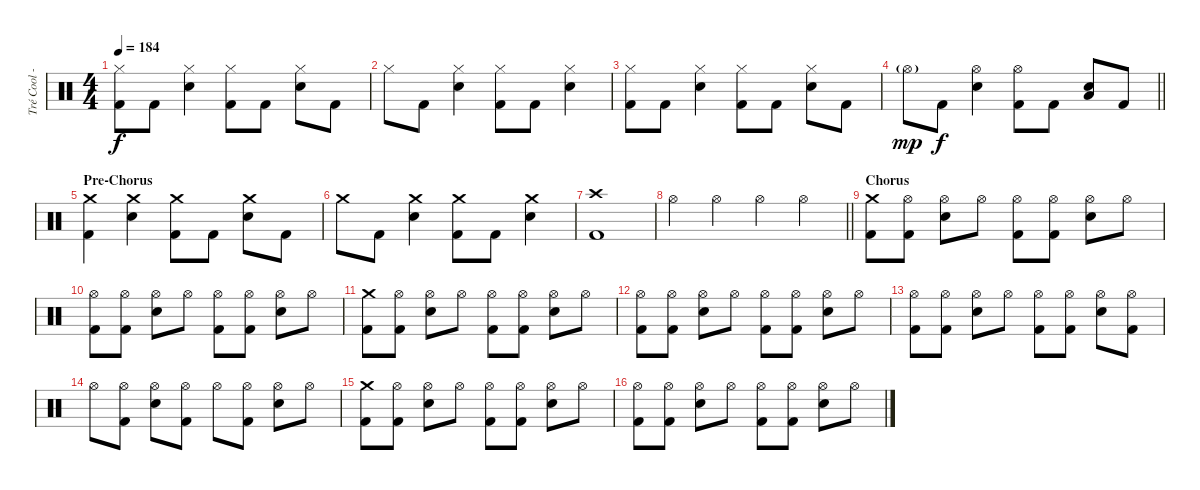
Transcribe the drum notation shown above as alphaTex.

\track ("Tré Cool - Drums" "Tré Cool -") {instrument percussion}
\staff {score}
\articulation defaults
\ts (4 4)
\tempo 184
\clef neutral
\ks c
("Hi-Hat (closed)" "Kick (hit) 2").8{dy f} "Kick (hit) 2".8 ("Hi-Hat (closed)" "Electric Snare (hit)").4 ("Hi-Hat (closed)" "Kick (hit) 2").8 "Kick (hit) 2".8 ("Hi-Hat (closed)" "Electric Snare (hit)").8 "Kick (hit) 2".8 |
"Hi-Hat (closed)".8 "Kick (hit) 2".8 ("Hi-Hat (closed)" "Electric Snare (hit)").4 ("Hi-Hat (closed)" "Kick (hit) 2").8 "Kick (hit) 2".8 ("Hi-Hat (closed)" "Electric Snare (hit)").4 |
("Hi-Hat (closed)" "Kick (hit) 2").8 "Kick (hit) 2".8 ("Hi-Hat (closed)" "Electric Snare (hit)").4 ("Hi-Hat (closed)" "Kick (hit) 2").8 "Kick (hit) 2".8 ("Hi-Hat (closed)" "Electric Snare (hit)").8 "Kick (hit) 2".8 |
\barLineRight lightlight "Hi-Hat (open)"{g}.8{dy mp} "Kick (hit) 2".8{dy f}
("Hi-Hat (open)" "Electric Snare (hit)").4 ("Hi-Hat (open)" "Kick (hit) 2").8 "Kick (hit) 2".8 ("Low Tom (hit)" "Electric Snare (hit)").8 "Kick (hit) 2".8 |
\section ("" "Pre-Chorus")
("Crash medium (hit)" "Kick (hit) 2").4 ("Crash medium (hit)" "Electric Snare (hit)").4 ("Crash medium (hit)" "Kick (hit) 2").8 "Kick (hit) 2".8 ("Crash medium (hit)" "Electric Snare (hit)").8 "Kick (hit) 2".8 |
"Crash medium (hit)".8 "Kick (hit) 2".8 ("Crash medium (hit)" "Electric Snare (hit)").4 ("Crash medium (hit)" "Kick (hit) 2").8 "Kick (hit) 2".8 ("Crash medium (hit)" "Electric Snare (hit)").4 |
("Crash high (hit)" "Kick (hit) 2").1 |
\barLineRight lightlight "Hi-Hat (open)".4{volume 12 balance 2} "Hi-Hat (open)".4 "Hi-Hat (open)".4 "Hi-Hat (open)".4
|
\section ("" "Chorus")
("Crash medium (hit)" "Kick (hit) 2").8{volume 11} ("Hi-Hat (open)" "Kick (hit) 2").8 ("Hi-Hat (open)" "Electric Snare (hit)").8 "Hi-Hat (open)".8 ("Hi-Hat (open)" "Kick (hit) 2").8 ("Hi-Hat (open)" "Kick (hit) 2").8 ("Hi-Hat (open)" "Electric Snare (hit)").8 "Hi-Hat (open)".8 |
("Hi-Hat (open)" "Kick (hit) 2").8 ("Hi-Hat (open)" "Kick (hit) 2").8 ("Hi-Hat (open)" "Electric Snare (hit)").8 "Hi-Hat (open)".8 ("Hi-Hat (open)" "Kick (hit) 2").8 ("Hi-Hat (open)" "Kick (hit) 2").8 ("Hi-Hat (open)" "Electric Snare (hit)").8 "Hi-Hat (open)".8 |
("Crash medium (hit)" "Kick (hit) 2").8 ("Hi-Hat (open)" "Kick (hit) 2").8 ("Hi-Hat (open)" "Electric Snare (hit)").8 "Hi-Hat (open)".8 ("Hi-Hat (open)" "Kick (hit) 2").8 ("Hi-Hat (open)" "Kick (hit) 2").8 ("Hi-Hat (open)" "Electric Snare (hit)").8 "Hi-Hat (open)".8 |
("Hi-Hat (open)" "Kick (hit) 2").8 ("Hi-Hat (open)" "Kick (hit) 2").8 ("Hi-Hat (open)" "Electric Snare (hit)").8 "Hi-Hat (open)".8 ("Hi-Hat (open)" "Kick (hit) 2").8 ("Hi-Hat (open)" "Kick (hit) 2").8 ("Hi-Hat (open)" "Electric Snare (hit)").8 "Hi-Hat (open)".8 |
("Hi-Hat (open)" "Kick (hit) 2").8 ("Hi-Hat (open)" "Kick (hit) 2").8 ("Hi-Hat (open)" "Electric Snare (hit)").8 "Hi-Hat (open)".8 ("Hi-Hat (open)" "Kick (hit) 2").8 ("Hi-Hat (open)" "Kick (hit) 2").8 ("Hi-Hat (open)" "Electric Snare (hit)").8 ("Hi-Hat (open)" "Kick (hit) 2").8 |
"Hi-Hat (open)".8 ("Hi-Hat (open)" "Kick (hit) 2").8 ("Hi-Hat (open)" "Electric Snare (hit)").8 ("Hi-Hat (open)" "Kick (hit) 2").8 "Hi-Hat (open)".8 ("Hi-Hat (open)" "Kick (hit) 2").8 ("Hi-Hat (open)" "Electric Snare (hit)").8 "Hi-Hat (open)".8 |
("Crash medium (hit)" "Kick (hit) 2").8 ("Hi-Hat (open)" "Kick (hit) 2").8 ("Hi-Hat (open)" "Electric Snare (hit)").8 "Hi-Hat (open)".8 ("Hi-Hat (open)" "Kick (hit) 2").8 ("Hi-Hat (open)" "Kick (hit) 2").8 ("Hi-Hat (open)" "Electric Snare (hit)").8 "Hi-Hat (open)".8 |
("Hi-Hat (open)" "Kick (hit) 2").8 ("Hi-Hat (open)" "Kick (hit) 2").8 ("Hi-Hat (open)" "Electric Snare (hit)").8 "Hi-Hat (open)".8 ("Hi-Hat (open)" "Kick (hit) 2").8 ("Hi-Hat (open)" "Kick (hit) 2").8 ("Hi-Hat (open)" "Electric Snare (hit)").8 "Hi-Hat (open)".8
